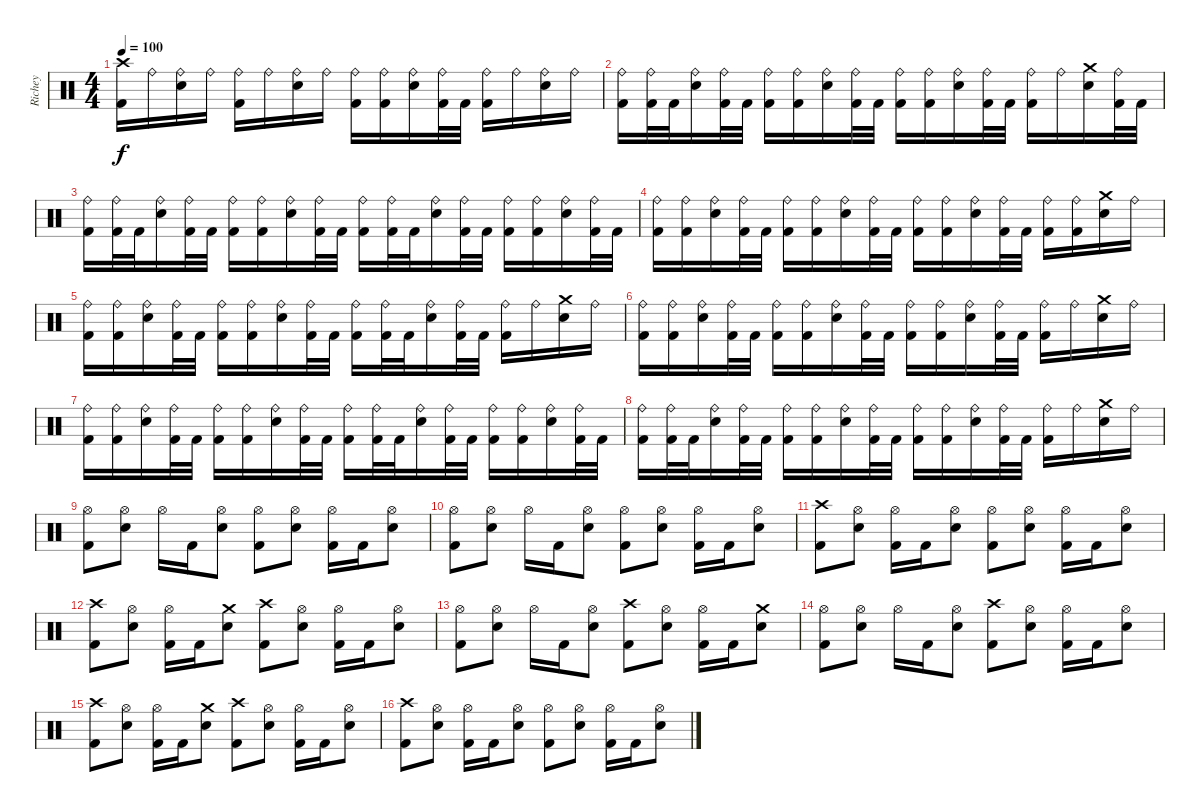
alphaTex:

\track ("Richey" "Richey") {instrument percussion}
\staff {score}
\articulation defaults
\ts (4 4)
\tempo 100
\clef neutral
\ks c
("Crash high (hit)" "Kick (hit) 2").16{dy f} "Ride (bell)".16 ("Ride (bell)" "Snare (hit) 2").16 "Ride (bell)".16 ("Ride (bell)" "Kick (hit) 2").16 "Ride (bell)".16 ("Ride (bell)" "Snare (hit) 2").16 "Ride (bell)".16 ("Ride (bell)" "Kick (hit) 2").16 ("Ride (bell)" "Kick (hit) 2").16 ("Ride (bell)" "Snare (hit) 2").16 ("Ride (bell)" "Kick (hit) 2").32 "Kick (hit) 2".32 ("Ride (bell)" "Kick (hit) 2").16 "Ride (bell)".16 ("Ride (bell)" "Snare (hit) 2").16 "Ride (bell)".16 |
("Ride (bell)" "Kick (hit) 2").16 ("Ride (bell)" "Kick (hit) 2").32 "Kick (hit) 2".32 ("Ride (bell)" "Snare (hit) 2").16 ("Ride (bell)" "Kick (hit) 2").32 "Kick (hit) 2".32 ("Ride (bell)" "Kick (hit) 2").16 ("Ride (bell)" "Kick (hit) 2").16 ("Ride (bell)" "Snare (hit) 2").16 ("Ride (bell)" "Kick (hit) 2").32 "Kick (hit) 2".32 ("Ride (bell)" "Kick (hit) 2").16 ("Ride (bell)" "Kick (hit) 2").16 ("Ride (bell)" "Snare (hit) 2").16 ("Ride (bell)" "Kick (hit) 2").32 "Kick (hit) 2".32 ("Ride (bell)" "Kick (hit) 2").16 "Ride (bell)".16 ("Crash medium (hit)" "Snare (hit) 2").16 ("Ride (bell)" "Kick (hit) 2").32 "Kick (hit) 2".32 |
("Ride (bell)" "Kick (hit) 2").16 ("Ride (bell)" "Kick (hit) 2").32 "Kick (hit) 2".32 ("Ride (bell)" "Snare (hit) 2").16 ("Ride (bell)" "Kick (hit) 2").32 "Kick (hit) 2".32 ("Ride (bell)" "Kick (hit) 2").16 ("Ride (bell)" "Kick (hit) 2").16 ("Ride (bell)" "Snare (hit) 2").16 ("Ride (bell)" "Kick (hit) 2").32 "Kick (hit) 2".32 ("Ride (bell)" "Kick (hit) 2").16 ("Ride (bell)" "Kick (hit) 2").32 "Kick (hit) 2".32 ("Ride (bell)" "Snare (hit) 2").16 ("Ride (bell)" "Kick (hit) 2").32 "Kick (hit) 2".32 ("Ride (bell)" "Kick (hit) 2").16 ("Ride (bell)" "Kick (hit) 2").16 ("Ride (bell)" "Snare (hit) 2").16 ("Ride (bell)" "Kick (hit) 2").32 "Kick (hit) 2".32 |
("Ride (bell)" "Kick (hit) 2").16 ("Ride (bell)" "Kick (hit) 2").16 ("Ride (bell)" "Snare (hit) 2").16 ("Ride (bell)" "Kick (hit) 2").32 "Kick (hit) 2".32 ("Ride (bell)" "Kick (hit) 2").16 ("Ride (bell)" "Kick (hit) 2").16 ("Ride (bell)" "Snare (hit) 2").16 ("Ride (bell)" "Kick (hit) 2").32 "Kick (hit) 2".32 ("Ride (bell)" "Kick (hit) 2").16 ("Ride (bell)" "Kick (hit) 2").16 ("Ride (bell)" "Snare (hit) 2").16 ("Ride (bell)" "Kick (hit) 2").32 "Kick (hit) 2".32 ("Ride (bell)" "Kick (hit) 2").16 ("Ride (bell)" "Kick (hit) 2").16 ("Crash medium (hit)" "Snare (hit) 2").16 "Ride (bell)".16 |
("Ride (bell)" "Kick (hit) 2").16 ("Ride (bell)" "Kick (hit) 2").16 ("Ride (bell)" "Snare (hit) 2").16 ("Ride (bell)" "Kick (hit) 2").32 "Kick (hit) 2".32 ("Ride (bell)" "Kick (hit) 2").16 ("Ride (bell)" "Kick (hit) 2").16 ("Ride (bell)" "Snare (hit) 2").16 ("Ride (bell)" "Kick (hit) 2").32 "Kick (hit) 2".32 ("Ride (bell)" "Kick (hit) 2").16 ("Ride (bell)" "Kick (hit) 2").32 "Kick (hit) 2".32 ("Ride (bell)" "Snare (hit) 2").16 ("Ride (bell)" "Kick (hit) 2").32 "Kick (hit) 2".32 ("Ride (bell)" "Kick (hit) 2").16 "Ride (bell)".16 ("Crash medium (hit)" "Snare (hit) 2").16 "Ride (bell)".16 |
("Ride (bell)" "Kick (hit) 2").16 ("Ride (bell)" "Kick (hit) 2").16 ("Ride (bell)" "Snare (hit) 2").16 ("Ride (bell)" "Kick (hit) 2").32 "Kick (hit) 2".32 ("Ride (bell)" "Kick (hit) 2").16 ("Ride (bell)" "Kick (hit) 2").16 ("Ride (bell)" "Snare (hit) 2").16 ("Ride (bell)" "Kick (hit) 2").32 "Kick (hit) 2".32 ("Ride (bell)" "Kick (hit) 2").16 ("Ride (bell)" "Kick (hit) 2").16 ("Ride (bell)" "Snare (hit) 2").16 ("Ride (bell)" "Kick (hit) 2").32 "Kick (hit) 2".32 ("Ride (bell)" "Kick (hit) 2").16 "Ride (bell)".16 ("Crash medium (hit)" "Snare (hit) 2").16 "Ride (bell)".16 |
("Ride (bell)" "Kick (hit) 2").16 ("Ride (bell)" "Kick (hit) 2").16 ("Ride (bell)" "Snare (hit) 2").16 ("Ride (bell)" "Kick (hit) 2").32 "Kick (hit) 2".32 ("Ride (bell)" "Kick (hit) 2").16 ("Ride (bell)" "Kick (hit) 2").16 ("Ride (bell)" "Snare (hit) 2").16 ("Ride (bell)" "Kick (hit) 2").32 "Kick (hit) 2".32 ("Ride (bell)" "Kick (hit) 2").16 ("Ride (bell)" "Kick (hit) 2").32 "Kick (hit) 2".32 ("Ride (bell)" "Snare (hit) 2").16 ("Ride (bell)" "Kick (hit) 2").32 "Kick (hit) 2".32 ("Ride (bell)" "Kick (hit) 2").16 ("Ride (bell)" "Kick (hit) 2").16 ("Ride (bell)" "Snare (hit) 2").16 ("Ride (bell)" "Kick (hit) 2").32 "Kick (hit) 2".32 |
("Ride (bell)" "Kick (hit) 2").16 ("Ride (bell)" "Kick (hit) 2").32 "Kick (hit) 2".32 ("Ride (bell)" "Snare (hit) 2").16 ("Ride (bell)" "Kick (hit) 2").32 "Kick (hit) 2".32 ("Ride (bell)" "Kick (hit) 2").16 ("Ride (bell)" "Kick (hit) 2").16 ("Ride (bell)" "Snare (hit) 2").16 ("Ride (bell)" "Kick (hit) 2").32 "Kick (hit) 2".32 ("Ride (bell)" "Kick (hit) 2").16 ("Ride (bell)" "Kick (hit) 2").16 ("Ride (bell)" "Snare (hit) 2").16 ("Ride (bell)" "Kick (hit) 2").32 "Kick (hit) 2".32 ("Ride (bell)" "Kick (hit) 2").16 "Ride (bell)".16 ("Crash medium (hit)" "Snare (hit) 2").16 "Ride (bell)".16 |
("Hi-Hat (open)" "Kick (hit) 2").8 ("Hi-Hat (open)" "Snare (hit) 2").8 "Hi-Hat (open)".16 "Kick (hit) 2".16 ("Hi-Hat (open)" "Snare (hit) 2").8 ("Hi-Hat (open)" "Kick (hit) 2").8 ("Hi-Hat (open)" "Snare (hit) 2").8 ("Hi-Hat (open)" "Kick (hit) 2").16 "Kick (hit) 2".16 ("Hi-Hat (open)" "Snare (hit) 2").8 |
("Hi-Hat (open)" "Kick (hit) 2").8 ("Hi-Hat (open)" "Snare (hit) 2").8 "Hi-Hat (open)".16 "Kick (hit) 2".16 ("Hi-Hat (open)" "Snare (hit) 2").8 ("Hi-Hat (open)" "Kick (hit) 2").8 ("Hi-Hat (open)" "Snare (hit) 2").8 ("Hi-Hat (open)" "Kick (hit) 2").16 "Kick (hit) 2".16 ("Hi-Hat (open)" "Snare (hit) 2").8 |
("Crash high (hit)" "Kick (hit) 2").8 ("Hi-Hat (open)" "Snare (hit) 2").8 ("Hi-Hat (open)" "Kick (hit) 2").16 "Kick (hit) 2".16 ("Hi-Hat (open)" "Snare (hit) 2").8 ("Hi-Hat (open)" "Kick (hit) 2").8 ("Hi-Hat (open)" "Snare (hit) 2").8 ("Hi-Hat (open)" "Kick (hit) 2").16 "Kick (hit) 2".16 ("Hi-Hat (open)" "Snare (hit) 2").8 |
("Crash high (hit)" "Kick (hit) 2").8 ("Hi-Hat (open)" "Snare (hit) 2").8 ("Hi-Hat (open)" "Kick (hit) 2").16 "Kick (hit) 2".16 ("Crash medium (hit)" "Snare (hit) 2").8 ("Crash high (hit)" "Kick (hit) 2").8 ("Hi-Hat (open)" "Snare (hit) 2").8 ("Hi-Hat (open)" "Kick (hit) 2").16 "Kick (hit) 2".16 ("Hi-Hat (open)" "Snare (hit) 2").8 |
("Hi-Hat (open)" "Kick (hit) 2").8 ("Hi-Hat (open)" "Snare (hit) 2").8 "Hi-Hat (open)".16 "Kick (hit) 2".16 ("Hi-Hat (open)" "Snare (hit) 2").8 ("Crash high (hit)" "Kick (hit) 2").8 ("Hi-Hat (open)" "Snare (hit) 2").8 ("Hi-Hat (open)" "Kick (hit) 2").16 "Kick (hit) 2".16 ("Crash medium (hit)" "Snare (hit) 2").8 |
("Hi-Hat (open)" "Kick (hit) 2").8 ("Hi-Hat (open)" "Snare (hit) 2").8 "Hi-Hat (open)".16 "Kick (hit) 2".16 ("Hi-Hat (open)" "Snare (hit) 2").8 ("Crash high (hit)" "Kick (hit) 2").8 ("Hi-Hat (open)" "Snare (hit) 2").8 ("Hi-Hat (open)" "Kick (hit) 2").16 "Kick (hit) 2".16 ("Hi-Hat (open)" "Snare (hit) 2").8 |
("Crash high (hit)" "Kick (hit) 2").8 ("Hi-Hat (open)" "Snare (hit) 2").8 ("Hi-Hat (open)" "Kick (hit) 2").16 "Kick (hit) 2".16 ("Crash medium (hit)" "Snare (hit) 2").8 ("Crash high (hit)" "Kick (hit) 2").8 ("Hi-Hat (open)" "Snare (hit) 2").8 ("Hi-Hat (open)" "Kick (hit) 2").16 "Kick (hit) 2".16 ("Hi-Hat (open)" "Snare (hit) 2").8 |
("Crash high (hit)" "Kick (hit) 2").8 ("Hi-Hat (open)" "Snare (hit) 2").8 ("Hi-Hat (open)" "Kick (hit) 2").16 "Kick (hit) 2".16 ("Hi-Hat (open)" "Snare (hit) 2").8 ("Hi-Hat (open)" "Kick (hit) 2").8 ("Hi-Hat (open)" "Snare (hit) 2").8 ("Hi-Hat (open)" "Kick (hit) 2").16 "Kick (hit) 2".16 ("Hi-Hat (open)" "Snare (hit) 2").8
